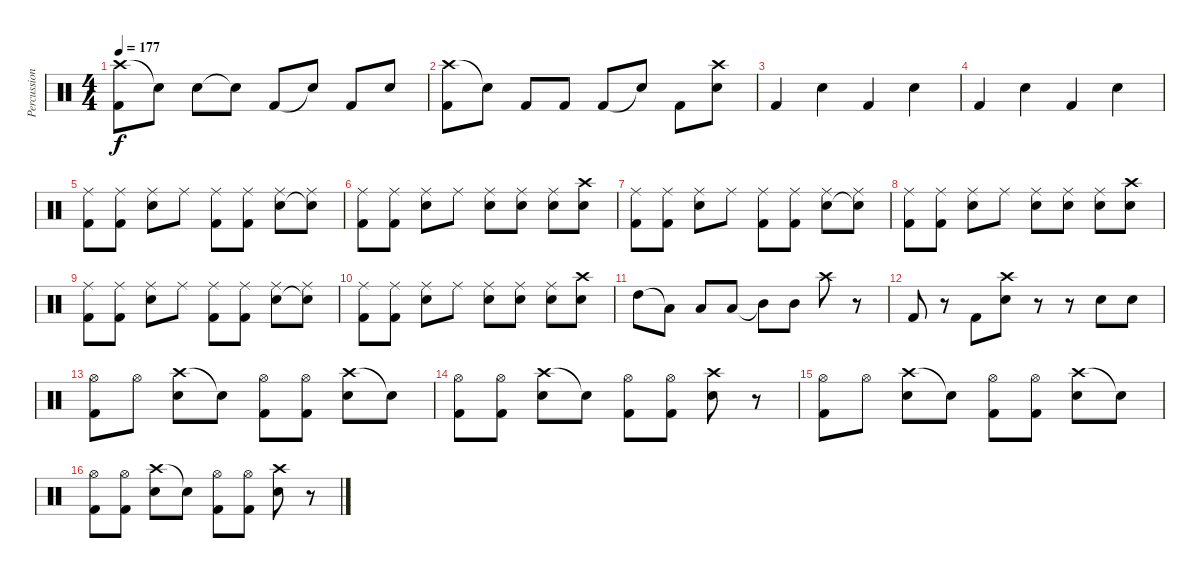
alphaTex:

\track ("Percussion" "Percussion") {instrument percussion}
\staff {score}
\articulation defaults
\ts (4 4)
\tempo 177
\clef neutral
\ks c
("Crash high (hit)" "Kick (hit) 2").8{dy f} "Snare (hit)"{t}.8 "Electric Snare (hit)".8 "Snare (hit)"{t}.8 "Kick (hit) 2".8 "Snare (hit)"{t}.8 "Kick (hit) 2".8 "Electric Snare (hit)".8 |
("Crash high (hit)" "Kick (hit) 2").8 "Snare (hit)"{t}.8 "Kick (hit) 2".8 "Kick (hit) 2".8 "Kick (hit) 2".8 "Snare (hit)"{t}.8 "Kick (hit) 2".8 ("Crash high (hit)" "Electric Snare (hit)").8 |
"Kick (hit) 2".4 "Electric Snare (hit)".4 "Kick (hit) 2".4 "Electric Snare (hit)".4 |
"Kick (hit) 2".4 "Electric Snare (hit)".4 "Kick (hit) 2".4 "Electric Snare (hit)".4 |
("Ride (middle)" "Kick (hit) 2").8 ("Ride (middle)" "Kick (hit) 2").8 ("Ride (middle)" "Electric Snare (hit)").8 "Ride (middle)".8 ("Ride (middle)" "Kick (hit) 2").8 ("Ride (middle)" "Kick (hit) 2").8 ("Ride (middle)" "Electric Snare (hit)").8 ("Ride (middle)" "Snare (hit)"{t}).8 |
("Ride (middle)" "Kick (hit) 2").8 ("Ride (middle)" "Kick (hit) 2").8 ("Ride (middle)" "Electric Snare (hit)").8 "Ride (middle)".8 ("Ride (middle)" "Electric Snare (hit)").8 ("Ride (middle)" "Electric Snare (hit)").8 ("Ride (middle)" "Electric Snare (hit)").8 ("Crash high (hit)" "Electric Snare (hit)").8 |
("Ride (middle)" "Kick (hit) 2").8 ("Ride (middle)" "Kick (hit) 2").8 ("Ride (middle)" "Electric Snare (hit)").8 "Ride (middle)".8 ("Ride (middle)" "Kick (hit) 2").8 ("Ride (middle)" "Kick (hit) 2").8 ("Ride (middle)" "Electric Snare (hit)").8 ("Ride (middle)" "Snare (hit)"{t}).8 |
("Ride (middle)" "Kick (hit) 2").8 ("Ride (middle)" "Kick (hit) 2").8 ("Ride (middle)" "Electric Snare (hit)").8 "Ride (middle)".8 ("Ride (middle)" "Electric Snare (hit)").8 ("Ride (middle)" "Electric Snare (hit)").8 ("Ride (middle)" "Electric Snare (hit)").8 ("Crash high (hit)" "Electric Snare (hit)").8 |
("Ride (middle)" "Kick (hit) 2").8 ("Ride (middle)" "Kick (hit) 2").8 ("Ride (middle)" "Electric Snare (hit)").8 "Ride (middle)".8 ("Ride (middle)" "Kick (hit) 2").8 ("Ride (middle)" "Kick (hit) 2").8 ("Ride (middle)" "Electric Snare (hit)").8 ("Ride (middle)" "Snare (hit)"{t}).8 |
("Ride (middle)" "Kick (hit) 2").8 ("Ride (middle)" "Kick (hit) 2").8 ("Ride (middle)" "Electric Snare (hit)").8 "Ride (middle)".8 ("Ride (middle)" "Electric Snare (hit)").8 ("Ride (middle)" "Electric Snare (hit)").8 ("Ride (middle)" "Electric Snare (hit)").8 ("Crash high (hit)" "Electric Snare (hit)").8 |
"High Tom (hit)".8 "Low Tom (hit)"{t}.8 "Low Tom (hit)".8 "Low Tom (hit)".8 "Mid Tom (hit)"{t}.8 "Mid Tom (hit)".8 "Crash high (hit)".8 r.8 |
"Kick (hit) 2".8 r.8 "Kick (hit) 2".8 ("Crash high (hit)" "Electric Snare (hit)").8 r.8 r.8 "Electric Snare (hit)".8 "Electric Snare (hit)".8 |
("Hi-Hat (open)" "Kick (hit) 2").8 "Hi-Hat (open)".8 ("Crash high (hit)" "Electric Snare (hit)").8 "Snare (hit)"{t}.8 ("Hi-Hat (open)" "Kick (hit) 2").8 ("Hi-Hat (open)" "Kick (hit) 2").8 ("Crash high (hit)" "Electric Snare (hit)").8 "Snare (hit)"{t}.8 |
("Hi-Hat (open)" "Kick (hit) 2").8 ("Hi-Hat (open)" "Kick (hit) 2").8 ("Crash high (hit)" "Electric Snare (hit)").8 "Snare (hit)"{t}.8 ("Hi-Hat (open)" "Kick (hit) 2").8 ("Hi-Hat (open)" "Kick (hit) 2").8 ("Crash high (hit)" "Electric Snare (hit)").8 r.8 |
("Hi-Hat (open)" "Kick (hit) 2").8 "Hi-Hat (open)".8 ("Crash high (hit)" "Electric Snare (hit)").8 "Snare (hit)"{t}.8 ("Hi-Hat (open)" "Kick (hit) 2").8 ("Hi-Hat (open)" "Kick (hit) 2").8 ("Crash high (hit)" "Electric Snare (hit)").8 "Snare (hit)"{t}.8 |
("Hi-Hat (open)" "Kick (hit) 2").8 ("Hi-Hat (open)" "Kick (hit) 2").8 ("Crash high (hit)" "Electric Snare (hit)").8 "Snare (hit)"{t}.8 ("Hi-Hat (open)" "Kick (hit) 2").8 ("Hi-Hat (open)" "Kick (hit) 2").8 ("Crash high (hit)" "Electric Snare (hit)").8 r.8
